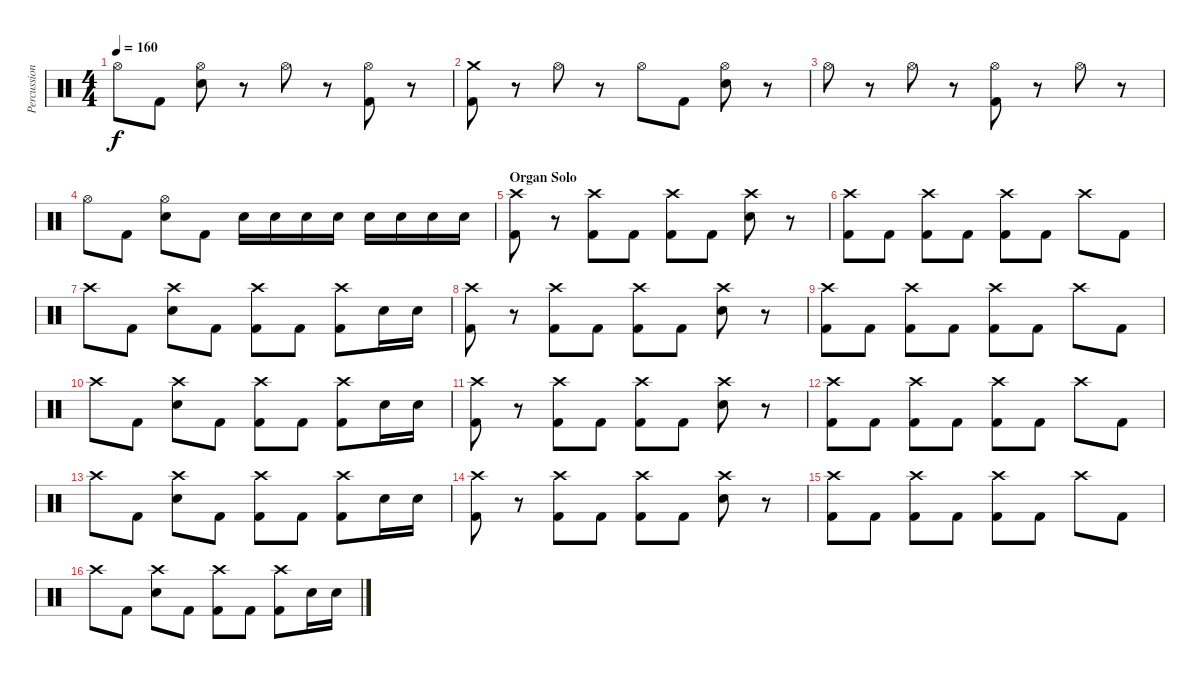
\track ("Percussion" "Percussion") {instrument percussion}
\staff {score}
\articulation defaults
\ts (4 4)
\tempo 160
\clef neutral
\ks c "Hi-Hat (open)".8{dy f} "Kick (hit) 2".8
("Hi-Hat (open)" "Electric Snare (hit)").8 r.8 "Hi-Hat (open)".8 r.8 ("Hi-Hat (open)" "Kick (hit) 2").8 r.8 |
("Crash medium (hit)" "Kick (hit) 2").8 r.8 "Hi-Hat (open)".8 r.8 "Hi-Hat (open)".8 "Kick (hit) 2".8 ("Hi-Hat (open)" "Electric Snare (hit)").8 r.8 |
"Hi-Hat (open)".8 r.8 "Hi-Hat (open)".8 r.8 ("Hi-Hat (open)" "Kick (hit) 2").8 r.8 "Hi-Hat (open)".8 r.8 |
"Hi-Hat (open)".8 "Kick (hit) 2".8 ("Hi-Hat (open)" "Electric Snare (hit)").8 "Kick (hit) 2".8 "Electric Snare (hit)".16 "Electric Snare (hit)".16 "Electric Snare (hit)".16 "Electric Snare (hit)".16 "Electric Snare (hit)".16 "Electric Snare (hit)".16 "Electric Snare (hit)".16 "Electric Snare (hit)".16 |
\section ("" "Organ Solo")
("Crash high (hit)" "Kick (hit) 2").8 r.8 ("Crash high (hit)" "Kick (hit) 2").8 "Kick (hit) 2".8 ("Crash high (hit)" "Kick (hit) 2").8 "Kick (hit) 2".8 ("Crash high (hit)" "Electric Snare (hit)").8 r.8 |
("Crash high (hit)" "Kick (hit) 2").8 "Kick (hit) 2".8 ("Crash high (hit)" "Kick (hit) 2").8 "Kick (hit) 2".8 ("Crash high (hit)" "Kick (hit) 2").8 "Kick (hit) 2".8 "Crash high (hit)".8 "Kick (hit) 2".8 |
"Crash high (hit)".8 "Kick (hit) 2".8 ("Crash high (hit)" "Electric Snare (hit)").8 "Kick (hit) 2".8 ("Crash high (hit)" "Kick (hit) 2").8 "Kick (hit) 2".8 ("Crash high (hit)" "Kick (hit) 2").8 "Electric Snare (hit)".16 "Electric Snare (hit)".16 |
("Crash high (hit)" "Kick (hit) 2").8 r.8 ("Crash high (hit)" "Kick (hit) 2").8 "Kick (hit) 2".8 ("Crash high (hit)" "Kick (hit) 2").8 "Kick (hit) 2".8 ("Crash high (hit)" "Electric Snare (hit)").8 r.8 |
("Crash high (hit)" "Kick (hit) 2").8 "Kick (hit) 2".8 ("Crash high (hit)" "Kick (hit) 2").8 "Kick (hit) 2".8 ("Crash high (hit)" "Kick (hit) 2").8 "Kick (hit) 2".8 "Crash high (hit)".8 "Kick (hit) 2".8 |
"Crash high (hit)".8 "Kick (hit) 2".8 ("Crash high (hit)" "Electric Snare (hit)").8 "Kick (hit) 2".8 ("Crash high (hit)" "Kick (hit) 2").8 "Kick (hit) 2".8 ("Crash high (hit)" "Kick (hit) 2").8 "Electric Snare (hit)".16 "Electric Snare (hit)".16 |
("Crash high (hit)" "Kick (hit) 2").8 r.8 ("Crash high (hit)" "Kick (hit) 2").8 "Kick (hit) 2".8 ("Crash high (hit)" "Kick (hit) 2").8 "Kick (hit) 2".8 ("Crash high (hit)" "Electric Snare (hit)").8 r.8 |
("Crash high (hit)" "Kick (hit) 2").8 "Kick (hit) 2".8 ("Crash high (hit)" "Kick (hit) 2").8 "Kick (hit) 2".8 ("Crash high (hit)" "Kick (hit) 2").8 "Kick (hit) 2".8 "Crash high (hit)".8 "Kick (hit) 2".8 |
"Crash high (hit)".8 "Kick (hit) 2".8 ("Crash high (hit)" "Electric Snare (hit)").8 "Kick (hit) 2".8 ("Crash high (hit)" "Kick (hit) 2").8 "Kick (hit) 2".8 ("Crash high (hit)" "Kick (hit) 2").8 "Electric Snare (hit)".16 "Electric Snare (hit)".16 |
("Crash high (hit)" "Kick (hit) 2").8 r.8 ("Crash high (hit)" "Kick (hit) 2").8 "Kick (hit) 2".8 ("Crash high (hit)" "Kick (hit) 2").8 "Kick (hit) 2".8 ("Crash high (hit)" "Electric Snare (hit)").8 r.8 |
("Crash high (hit)" "Kick (hit) 2").8 "Kick (hit) 2".8 ("Crash high (hit)" "Kick (hit) 2").8 "Kick (hit) 2".8 ("Crash high (hit)" "Kick (hit) 2").8 "Kick (hit) 2".8 "Crash high (hit)".8 "Kick (hit) 2".8 |
"Crash high (hit)".8 "Kick (hit) 2".8 ("Crash high (hit)" "Electric Snare (hit)").8 "Kick (hit) 2".8 ("Crash high (hit)" "Kick (hit) 2").8 "Kick (hit) 2".8 ("Crash high (hit)" "Kick (hit) 2").8 "Electric Snare (hit)".16 "Electric Snare (hit)".16
